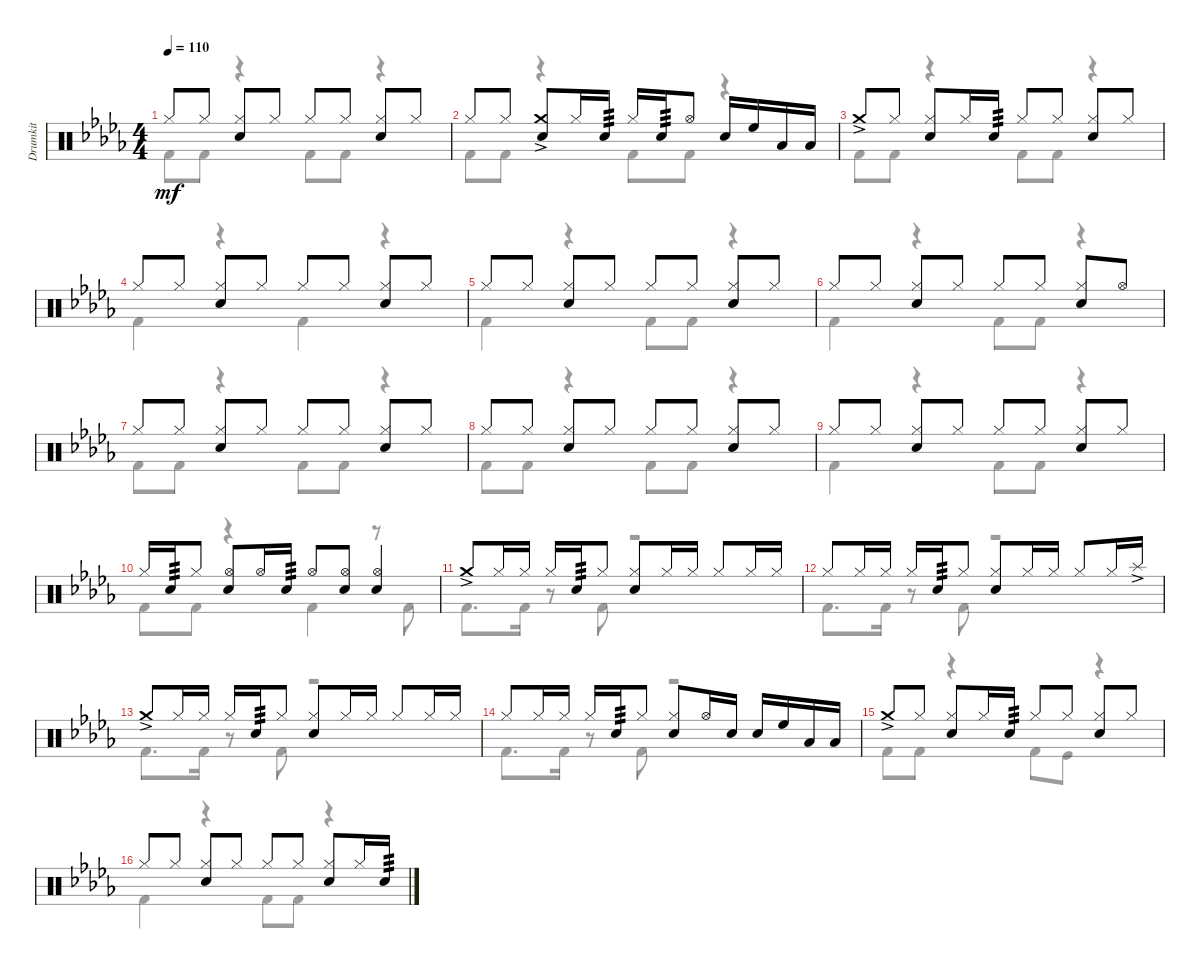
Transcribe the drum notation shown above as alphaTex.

\track ("Drumkit" "Drumkit") {instrument percussion}
\staff {score}
\articulation defaults
\voice
\ts (4 4)
\tempo 110
\clef neutral
\ks db "Hi-Hat (closed)".8{dy mf} "Hi-Hat (closed)".8
("Snare (hit) 2" "Hi-Hat (closed)").8 "Hi-Hat (closed)".8 "Hi-Hat (closed)".8 "Hi-Hat (closed)".8 ("Snare (hit) 2" "Hi-Hat (closed)").8 "Hi-Hat (closed)".8 |
"Hi-Hat (closed)".8 "Hi-Hat (closed)".8 ("Crash medium (hit)"{ac} "Snare (hit) 2"{ac}).8 "Hi-Hat (closed)".16 "Snare (hit) 2".16{tp 3} "Hi-Hat (closed)".16 "Snare (hit) 2".16{tp 3} "Hi-Hat (open)".8 "Snare (hit) 2".16 "High Floor Tom (hit)".16 "Low Floor Tom (hit)".16 "Low Floor Tom (hit)".16 |
\section ("" "")
"Crash medium (hit)"{ac}.8 "Hi-Hat (closed)".8 ("Snare (hit) 2" "Hi-Hat (closed)").8 "Hi-Hat (closed)".16 "Snare (hit) 2".16{tp 3} "Hi-Hat (closed)".8 "Hi-Hat (closed)".8 ("Snare (hit) 2" "Hi-Hat (closed)").8 "Hi-Hat (closed)".8 |
"Hi-Hat (closed)".8 "Hi-Hat (closed)".8 ("Snare (hit) 2" "Hi-Hat (closed)").8 "Hi-Hat (closed)".8 "Hi-Hat (closed)".8 "Hi-Hat (closed)".8 ("Snare (hit) 2" "Hi-Hat (closed)").8 "Hi-Hat (closed)".8 |
"Hi-Hat (closed)".8 "Hi-Hat (closed)".8 ("Snare (hit) 2" "Hi-Hat (closed)").8 "Hi-Hat (closed)".8 "Hi-Hat (closed)".8 "Hi-Hat (closed)".8 ("Snare (hit) 2" "Hi-Hat (closed)").8 "Hi-Hat (closed)".8 |
"Hi-Hat (closed)".8 "Hi-Hat (closed)".8 ("Snare (hit) 2" "Hi-Hat (closed)").8 "Hi-Hat (closed)".8 "Hi-Hat (closed)".8 "Hi-Hat (closed)".8 ("Snare (hit) 2" "Hi-Hat (closed)").8 "Hi-Hat (open)".8 |
"Hi-Hat (closed)".8 "Hi-Hat (closed)".8 ("Snare (hit) 2" "Hi-Hat (closed)").8 "Hi-Hat (closed)".8 "Hi-Hat (closed)".8 "Hi-Hat (closed)".8 ("Snare (hit) 2" "Hi-Hat (closed)").8 "Hi-Hat (closed)".8 |
"Hi-Hat (closed)".8 "Hi-Hat (closed)".8 ("Snare (hit) 2" "Hi-Hat (closed)").8 "Hi-Hat (closed)".8 "Hi-Hat (closed)".8 "Hi-Hat (closed)".8 ("Snare (hit) 2" "Hi-Hat (closed)").8 "Hi-Hat (closed)".8 |
"Hi-Hat (closed)".8 "Hi-Hat (closed)".8 ("Snare (hit) 2" "Hi-Hat (closed)").8 "Hi-Hat (closed)".8 "Hi-Hat (closed)".8 "Hi-Hat (closed)".8 ("Snare (hit) 2" "Hi-Hat (closed)").8 "Hi-Hat (closed)".8 |
"Hi-Hat (closed)".16 "Snare (hit) 2".16{tp 3} "Hi-Hat (closed)".8 ("Hi-Hat (open)" "Snare (hit) 2").8 "Hi-Hat (open)".16 "Snare (hit) 2".16{tp 3} "Hi-Hat (open)".8 ("Hi-Hat (open)" "Snare (hit) 2").8 ("Hi-Hat (open)" "Snare (hit) 2").4 |
\section ("" "")
"Crash medium (hit)"{ac}.8 "Hi-Hat (closed)".16 "Hi-Hat (closed)".16 "Hi-Hat (closed)".16 "Snare (hit) 2".16{tp 3} "Hi-Hat (closed)".8 ("Snare (hit) 2" "Hi-Hat (closed)").8 "Hi-Hat (closed)".16 "Hi-Hat (closed)".16 "Hi-Hat (closed)".8 "Hi-Hat (closed)".16 "Hi-Hat (closed)".16 |
"Hi-Hat (closed)".8 "Hi-Hat (closed)".16 "Hi-Hat (closed)".16 "Hi-Hat (closed)".16 "Snare (hit) 2".16{tp 3} "Hi-Hat (closed)".8 ("Snare (hit) 2" "Hi-Hat (closed)").8 "Hi-Hat (closed)".16 "Hi-Hat (closed)".16 "Hi-Hat (closed)".8 "Hi-Hat (closed)".16 "Splash (hit)"{ac}.16 |
"Crash medium (hit)"{ac}.8 "Hi-Hat (closed)".16 "Hi-Hat (closed)".16 "Hi-Hat (closed)".16 "Snare (hit) 2".16{tp 3} "Hi-Hat (closed)".8 ("Snare (hit) 2" "Hi-Hat (closed)").8 "Hi-Hat (closed)".16 "Hi-Hat (closed)".16 "Hi-Hat (closed)".8 "Hi-Hat (closed)".16 "Hi-Hat (closed)".16 |
"Hi-Hat (closed)".8 "Hi-Hat (closed)".16 "Hi-Hat (closed)".16 "Hi-Hat (closed)".16 "Snare (hit) 2".16{tp 3} "Hi-Hat (closed)".8 ("Snare (hit) 2" "Hi-Hat (closed)").8 "Hi-Hat (open)".16 "Snare (hit) 2".16 "Snare (hit) 2".16 "High Floor Tom (hit)".16 "Low Floor Tom (hit)".16 "Low Floor Tom (hit)".16 |
"Crash medium (hit)"{ac}.8 "Hi-Hat (closed)".8 ("Snare (hit) 2" "Hi-Hat (closed)").8 "Hi-Hat (closed)".16 "Snare (hit) 2".16{tp 3} "Hi-Hat (closed)".8 "Hi-Hat (closed)".8 ("Snare (hit) 2" "Hi-Hat (closed)").8 "Hi-Hat (closed)".8 |
"Hi-Hat (closed)".8 "Hi-Hat (closed)".8 ("Snare (hit) 2" "Hi-Hat (closed)").8 "Hi-Hat (closed)".8 "Hi-Hat (closed)".8 "Hi-Hat (closed)".8 ("Snare (hit) 2" "Hi-Hat (closed)").8 "Hi-Hat (closed)".16 "Snare (hit) 2".16{tp 3}
\voice
\clef neutral
\ottava regular
\simile none
\ks db "Kick (hit) 2".8{dy mf} "Kick (hit) 2".8
r.4 "Kick (hit) 2".8 "Kick (hit) 2".8 r.4 |
"Kick (hit) 2".8 "Kick (hit) 2".8 r.4 "Kick (hit) 2".8 "Kick (hit) 2".8 r.4 |
"Kick (hit) 2".8 "Kick (hit) 2".8 r.4 "Kick (hit) 2".8 "Kick (hit) 2".8 r.4 |
"Kick (hit) 2".4 r.4 "Kick (hit) 2".4 r.4 |
"Kick (hit) 2".4 r.4 "Kick (hit) 2".8 "Kick (hit) 2".8 r.4 |
"Kick (hit) 2".4 r.4 "Kick (hit) 2".8 "Kick (hit) 2".8 r.4 |
"Kick (hit) 2".8 "Kick (hit) 2".8 r.4 "Kick (hit) 2".8 "Kick (hit) 2".8 r.4 |
"Kick (hit) 2".8 "Kick (hit) 2".8 r.4 "Kick (hit) 2".8 "Kick (hit) 2".8 r.4 |
"Kick (hit) 2".4 r.4 "Kick (hit) 2".8 "Kick (hit) 2".8 r.4 |
"Kick (hit) 2".8 "Kick (hit) 2".8 r.4 "Kick (hit) 2".4 r.8 "Kick (hit) 2".8 |
"Kick (hit) 2".8{d} "Kick (hit) 2".16 r.8 "Kick (hit) 2".8 r.2 |
"Kick (hit) 2".8{d} "Kick (hit) 2".16 r.8 "Kick (hit) 2".8 r.2 |
"Kick (hit) 2".8{d} "Kick (hit) 2".16 r.8 "Kick (hit) 2".8 r.2 |
"Kick (hit) 2".8{d} "Kick (hit) 2".16 r.8 "Kick (hit) 2".8 r.2 |
"Kick (hit) 2".8 "Kick (hit) 2".8 r.4 "Kick (hit) 2".8 "Kick (hit)".8 r.4 |
"Kick (hit) 2".4 r.4 "Kick (hit) 2".8 "Kick (hit) 2".8 r.4
